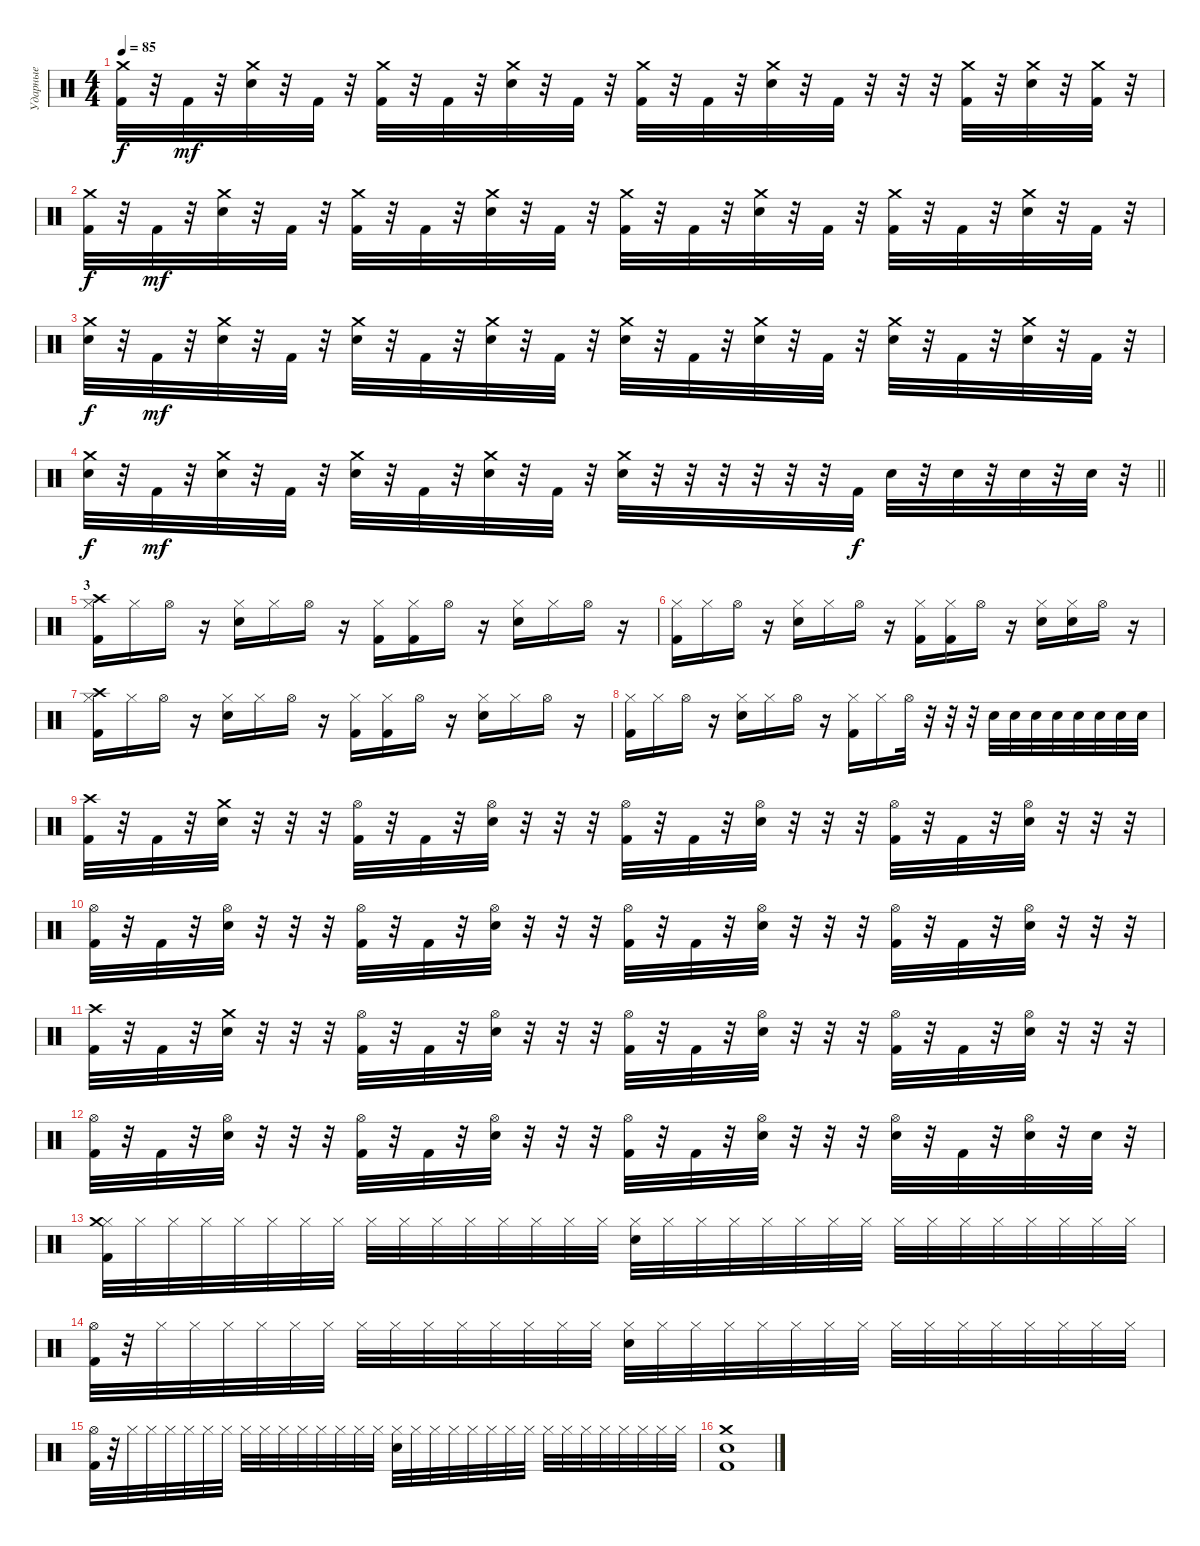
\track ("Ударные" "Ударные") {instrument percussion}
\staff {score}
\articulation defaults
\ts (4 4)
\tempo 85
\clef neutral
\ks c
("Crash medium (hit)" "Kick (hit) 2").32{dy f} r.32 "Kick (hit) 2".32{dy mf} r.32 ("Crash medium (hit)" "Electric Snare (hit)").32 r.32 "Kick (hit) 2".32 r.32 ("Crash medium (hit)" "Kick (hit) 2").32 r.32 "Kick (hit) 2".32 r.32 ("Crash medium (hit)" "Electric Snare (hit)").32 r.32 "Kick (hit) 2".32 r.32 ("Crash medium (hit)" "Kick (hit) 2").32 r.32 "Kick (hit) 2".32 r.32 ("Crash medium (hit)" "Electric Snare (hit)").32 r.32 "Kick (hit) 2".32 r.32 r.32 r.32 ("Crash medium (hit)" "Kick (hit) 2").32 r.32 ("Crash medium (hit)" "Electric Snare (hit)").32 r.32 ("Crash medium (hit)" "Kick (hit) 2").32 r.32 |
("Crash medium (hit)" "Kick (hit) 2").32{dy f} r.32 "Kick (hit) 2".32{dy mf} r.32 ("Crash medium (hit)" "Electric Snare (hit)").32 r.32 "Kick (hit) 2".32 r.32 ("Crash medium (hit)" "Kick (hit) 2").32 r.32 "Kick (hit) 2".32 r.32 ("Crash medium (hit)" "Electric Snare (hit)").32 r.32 "Kick (hit) 2".32 r.32 ("Crash medium (hit)" "Kick (hit) 2").32 r.32 "Kick (hit) 2".32 r.32 ("Crash medium (hit)" "Electric Snare (hit)").32 r.32 "Kick (hit) 2".32 r.32 ("Crash medium (hit)" "Kick (hit) 2").32 r.32 "Kick (hit) 2".32 r.32 ("Crash medium (hit)" "Electric Snare (hit)").32 r.32 "Kick (hit) 2".32 r.32 |
("Crash medium (hit)" "Electric Snare (hit)").32{dy f} r.32 "Kick (hit) 2".32{dy mf} r.32 ("Crash medium (hit)" "Electric Snare (hit)").32 r.32 "Kick (hit) 2".32 r.32 ("Crash medium (hit)" "Electric Snare (hit)").32 r.32 "Kick (hit) 2".32 r.32 ("Crash medium (hit)" "Electric Snare (hit)").32 r.32 "Kick (hit) 2".32 r.32 ("Crash medium (hit)" "Electric Snare (hit)").32 r.32 "Kick (hit) 2".32 r.32 ("Crash medium (hit)" "Electric Snare (hit)").32 r.32 "Kick (hit) 2".32 r.32 ("Crash medium (hit)" "Electric Snare (hit)").32 r.32 "Kick (hit) 2".32 r.32 ("Crash medium (hit)" "Electric Snare (hit)").32 r.32 "Kick (hit) 2".32 r.32 |
\barLineRight lightlight
("Crash medium (hit)" "Electric Snare (hit)").32{dy f} r.32 "Kick (hit) 2".32{dy mf} r.32 ("Crash medium (hit)" "Electric Snare (hit)").32 r.32 "Kick (hit) 2".32 r.32 ("Crash medium (hit)" "Electric Snare (hit)").32 r.32 "Kick (hit) 2".32 r.32 ("Crash medium (hit)" "Electric Snare (hit)").32 r.32 "Kick (hit) 2".32 r.32 ("Crash medium (hit)" "Electric Snare (hit)").32 r.32 r.32 r.32 r.32 r.32 r.32 "Kick (hit) 2".32{dy f} "Electric Snare (hit)".32 r.32 "Electric Snare (hit)".32 r.32 "Electric Snare (hit)".32 r.32 "Electric Snare (hit)".32 r.32 |
\section ("" "3")
("Hi-Hat (closed)" "Crash high (hit)" "Kick (hit) 2").16 "Hi-Hat (closed)".16 "Hi-Hat (open)".16 r.16 ("Hi-Hat (closed)" "Electric Snare (hit)").16 "Hi-Hat (closed)".16 "Hi-Hat (open)".16 r.16 ("Hi-Hat (closed)" "Kick (hit) 2").16 ("Hi-Hat (closed)" "Kick (hit) 2").16 "Hi-Hat (open)".16 r.16 ("Hi-Hat (closed)" "Electric Snare (hit)").16 "Hi-Hat (closed)".16 "Hi-Hat (open)".16 r.16 |
("Hi-Hat (closed)" "Kick (hit) 2").16 "Hi-Hat (closed)".16 "Hi-Hat (open)".16 r.16 ("Hi-Hat (closed)" "Electric Snare (hit)").16 "Hi-Hat (closed)".16 "Hi-Hat (open)".16 r.16 ("Hi-Hat (closed)" "Kick (hit) 2").16 ("Hi-Hat (closed)" "Kick (hit) 2").16 "Hi-Hat (open)".16 r.16 ("Hi-Hat (closed)" "Electric Snare (hit)").16 ("Hi-Hat (closed)" "Electric Snare (hit)").16 "Hi-Hat (open)".16 r.16 |
("Hi-Hat (closed)" "Crash high (hit)" "Kick (hit) 2").16 "Hi-Hat (closed)".16 "Hi-Hat (open)".16 r.16 ("Hi-Hat (closed)" "Electric Snare (hit)").16 "Hi-Hat (closed)".16 "Hi-Hat (open)".16 r.16 ("Hi-Hat (closed)" "Kick (hit) 2").16 ("Hi-Hat (closed)" "Kick (hit) 2").16 "Hi-Hat (open)".16 r.16 ("Hi-Hat (closed)" "Electric Snare (hit)").16 "Hi-Hat (closed)".16 "Hi-Hat (open)".16 r.16 |
("Hi-Hat (closed)" "Kick (hit) 2").16 "Hi-Hat (closed)".16 "Hi-Hat (open)".16 r.16 ("Hi-Hat (closed)" "Electric Snare (hit)").16 "Hi-Hat (closed)".16 "Hi-Hat (open)".16 r.16 ("Hi-Hat (closed)" "Kick (hit) 2").16 "Hi-Hat (closed)".16 "Hi-Hat (open)".32 r.32 r.32 r.32 "Electric Snare (hit)".32 "Electric Snare (hit)".32 "Electric Snare (hit)".32 "Electric Snare (hit)".32 "Electric Snare (hit)".32 "Electric Snare (hit)".32 "Electric Snare (hit)".32 "Electric Snare (hit)".32 |
("Crash high (hit)" "Kick (hit) 2").32 r.32 "Kick (hit) 2".32 r.32 ("Crash medium (hit)" "Electric Snare (hit)").32 r.32 r.32 r.32 ("Hi-Hat (open)" "Kick (hit) 2").32 r.32 "Kick (hit) 2".32 r.32 ("Hi-Hat (open)" "Electric Snare (hit)").32 r.32 r.32 r.32 ("Hi-Hat (open)" "Kick (hit) 2").32 r.32 "Kick (hit) 2".32 r.32 ("Hi-Hat (open)" "Electric Snare (hit)").32 r.32 r.32 r.32 ("Hi-Hat (open)" "Kick (hit) 2").32 r.32 "Kick (hit) 2".32 r.32 ("Hi-Hat (open)" "Electric Snare (hit)").32 r.32 r.32 r.32 |
("Hi-Hat (open)" "Kick (hit) 2").32 r.32 "Kick (hit) 2".32 r.32 ("Hi-Hat (open)" "Electric Snare (hit)").32 r.32 r.32 r.32 ("Hi-Hat (open)" "Kick (hit) 2").32 r.32 "Kick (hit) 2".32 r.32 ("Hi-Hat (open)" "Electric Snare (hit)").32 r.32 r.32 r.32 ("Hi-Hat (open)" "Kick (hit) 2").32 r.32 "Kick (hit) 2".32 r.32 ("Hi-Hat (open)" "Electric Snare (hit)").32 r.32 r.32 r.32 ("Hi-Hat (open)" "Kick (hit) 2").32 r.32 "Kick (hit) 2".32 r.32 ("Hi-Hat (open)" "Electric Snare (hit)").32 r.32 r.32 r.32 |
("Crash high (hit)" "Kick (hit) 2").32 r.32 "Kick (hit) 2".32 r.32 ("Crash medium (hit)" "Electric Snare (hit)").32 r.32 r.32 r.32 ("Hi-Hat (open)" "Kick (hit) 2").32 r.32 "Kick (hit) 2".32 r.32 ("Hi-Hat (open)" "Electric Snare (hit)").32 r.32 r.32 r.32 ("Hi-Hat (open)" "Kick (hit) 2").32 r.32 "Kick (hit) 2".32 r.32 ("Hi-Hat (open)" "Electric Snare (hit)").32 r.32 r.32 r.32 ("Hi-Hat (open)" "Kick (hit) 2").32 r.32 "Kick (hit) 2".32 r.32 ("Hi-Hat (open)" "Electric Snare (hit)").32 r.32 r.32 r.32 |
("Hi-Hat (open)" "Kick (hit) 2").32 r.32 "Kick (hit) 2".32 r.32 ("Hi-Hat (open)" "Electric Snare (hit)").32 r.32 r.32 r.32 ("Hi-Hat (open)" "Kick (hit) 2").32 r.32 "Kick (hit) 2".32 r.32 ("Hi-Hat (open)" "Electric Snare (hit)").32 r.32 r.32 r.32 ("Hi-Hat (open)" "Kick (hit) 2").32 r.32 "Kick (hit) 2".32 r.32 ("Hi-Hat (open)" "Electric Snare (hit)").32 r.32 r.32 r.32 ("Hi-Hat (open)" "Electric Snare (hit)").32 r.32 "Kick (hit) 2".32 r.32 ("Hi-Hat (open)" "Electric Snare (hit)").32 r.32 "Electric Snare (hit)".32 r.32 |
("Hi-Hat (closed)" "Crash medium (hit)" "Kick (hit) 2").32 "Hi-Hat (closed)".32 "Hi-Hat (closed)".32 "Hi-Hat (closed)".32 "Hi-Hat (closed)".32 "Hi-Hat (closed)".32 "Hi-Hat (closed)".32 "Hi-Hat (closed)".32 "Hi-Hat (closed)".32 "Hi-Hat (closed)".32 "Hi-Hat (closed)".32 "Hi-Hat (closed)".32 "Hi-Hat (closed)".32 "Hi-Hat (closed)".32 "Hi-Hat (closed)".32 "Hi-Hat (closed)".32 ("Hi-Hat (closed)" "Electric Snare (hit)").32 "Hi-Hat (closed)".32 "Hi-Hat (closed)".32 "Hi-Hat (closed)".32 "Hi-Hat (closed)".32 "Hi-Hat (closed)".32 "Hi-Hat (closed)".32 "Hi-Hat (closed)".32 "Hi-Hat (closed)".32 "Hi-Hat (closed)".32 "Hi-Hat (closed)".32 "Hi-Hat (closed)".32 "Hi-Hat (closed)".32 "Hi-Hat (closed)".32 "Hi-Hat (closed)".32 "Hi-Hat (closed)".32 |
("Hi-Hat (open)" "Kick (hit) 2").32 r.32 "Hi-Hat (closed)".32 "Hi-Hat (closed)".32 "Hi-Hat (closed)".32 "Hi-Hat (closed)".32 "Hi-Hat (closed)".32 "Hi-Hat (closed)".32 "Hi-Hat (closed)".32 "Hi-Hat (closed)".32 "Hi-Hat (closed)".32 "Hi-Hat (closed)".32 "Hi-Hat (closed)".32 "Hi-Hat (closed)".32 "Hi-Hat (closed)".32 "Hi-Hat (closed)".32 ("Hi-Hat (closed)" "Electric Snare (hit)").32 "Hi-Hat (closed)".32 "Hi-Hat (closed)".32 "Hi-Hat (closed)".32 "Hi-Hat (closed)".32 "Hi-Hat (closed)".32 "Hi-Hat (closed)".32 "Hi-Hat (closed)".32 "Hi-Hat (closed)".32 "Hi-Hat (closed)".32 "Hi-Hat (closed)".32 "Hi-Hat (closed)".32 "Hi-Hat (closed)".32 "Hi-Hat (closed)".32 "Hi-Hat (closed)".32 "Hi-Hat (closed)".32 |
("Hi-Hat (open)" "Kick (hit) 2").32 r.32 "Hi-Hat (closed)".32 "Hi-Hat (closed)".32 "Hi-Hat (closed)".32 "Hi-Hat (closed)".32 "Hi-Hat (closed)".32 "Hi-Hat (closed)".32 "Hi-Hat (closed)".32 "Hi-Hat (closed)".32 "Hi-Hat (closed)".32 "Hi-Hat (closed)".32 "Hi-Hat (closed)".32 "Hi-Hat (closed)".32 "Hi-Hat (closed)".32 "Hi-Hat (closed)".32 ("Hi-Hat (closed)" "Electric Snare (hit)").32 "Hi-Hat (closed)".32 "Hi-Hat (closed)".32 "Hi-Hat (closed)".32 "Hi-Hat (closed)".32 "Hi-Hat (closed)".32 "Hi-Hat (closed)".32 "Hi-Hat (closed)".32 "Hi-Hat (closed)".32 "Hi-Hat (closed)".32 "Hi-Hat (closed)".32 "Hi-Hat (closed)".32 "Hi-Hat (closed)".32 "Hi-Hat (closed)".32 "Hi-Hat (closed)".32 "Hi-Hat (closed)".32 |
("Crash medium (hit)" "Electric Snare (hit)" "Kick (hit) 2").1
